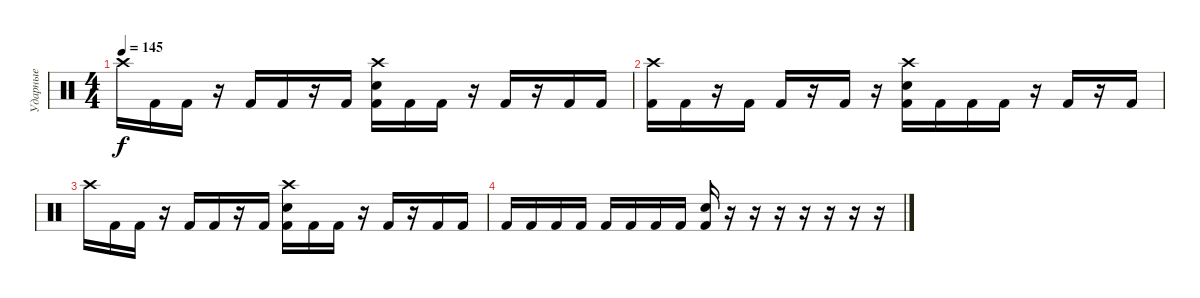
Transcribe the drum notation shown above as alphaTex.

\track ("Ударные" "Ударные") {instrument percussion}
\staff {score}
\articulation defaults
\ts (4 4)
\tempo 145
\clef neutral
\ks c "Crash high (hit)".16{dy f} "Kick (hit) 2".16 "Kick (hit) 2".16
r.16 "Kick (hit) 2".16 "Kick (hit) 2".16 r.16 "Kick (hit) 2".16 ("Crash high (hit)" "Electric Snare (hit)" "Kick (hit) 2").16 "Kick (hit) 2".16 "Kick (hit) 2".16 r.16 "Kick (hit) 2".16 r.16 "Kick (hit) 2".16 "Kick (hit) 2".16 |
("Crash high (hit)" "Kick (hit) 2").16 "Kick (hit) 2".16 r.16 "Kick (hit) 2".16 "Kick (hit) 2".16 r.16 "Kick (hit) 2".16 r.16 ("Crash high (hit)" "Electric Snare (hit)" "Kick (hit) 2").16 "Kick (hit) 2".16 "Kick (hit) 2".16 "Kick (hit) 2".16 r.16 "Kick (hit) 2".16 r.16 "Kick (hit) 2".16 |
"Crash high (hit)".16 "Kick (hit) 2".16 "Kick (hit) 2".16 r.16 "Kick (hit) 2".16 "Kick (hit) 2".16 r.16 "Kick (hit) 2".16 ("Crash high (hit)" "Electric Snare (hit)" "Kick (hit) 2").16 "Kick (hit) 2".16 "Kick (hit) 2".16 r.16 "Kick (hit) 2".16 r.16 "Kick (hit) 2".16 "Kick (hit) 2".16 |
"Kick (hit) 2".16 "Kick (hit) 2".16 "Kick (hit) 2".16 "Kick (hit) 2".16 "Kick (hit) 2".16 "Kick (hit) 2".16 "Kick (hit) 2".16 "Kick (hit) 2".16 ("Electric Snare (hit)" "Kick (hit) 2").16 r.16 r.16 r.16 r.16 r.16 r.16 r.16
